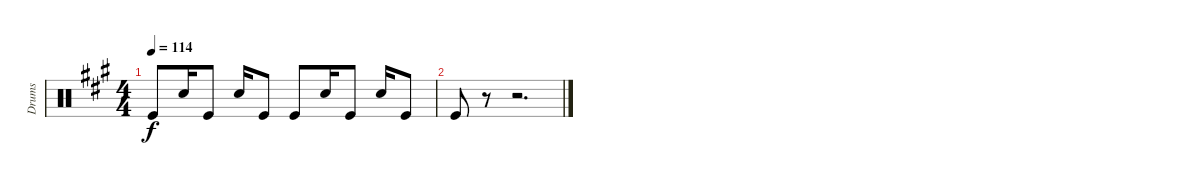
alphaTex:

\track ("Drums" "Drums") {instrument percussion}
\staff {score}
\articulation defaults
\ts (4 4)
\tempo 114
\clef neutral
\ks a "Kick (hit)".8{dy f} "Electric Snare (hit)".16 "Kick (hit)".8 "Electric Snare (hit)".16 "Kick (hit)".8 "Kick (hit)".8 "Electric Snare (hit)".16 "Kick (hit)".8 "Electric Snare (hit)".16 "Kick (hit)".8
|
"Kick (hit)".8 r.8 r.2{d}
